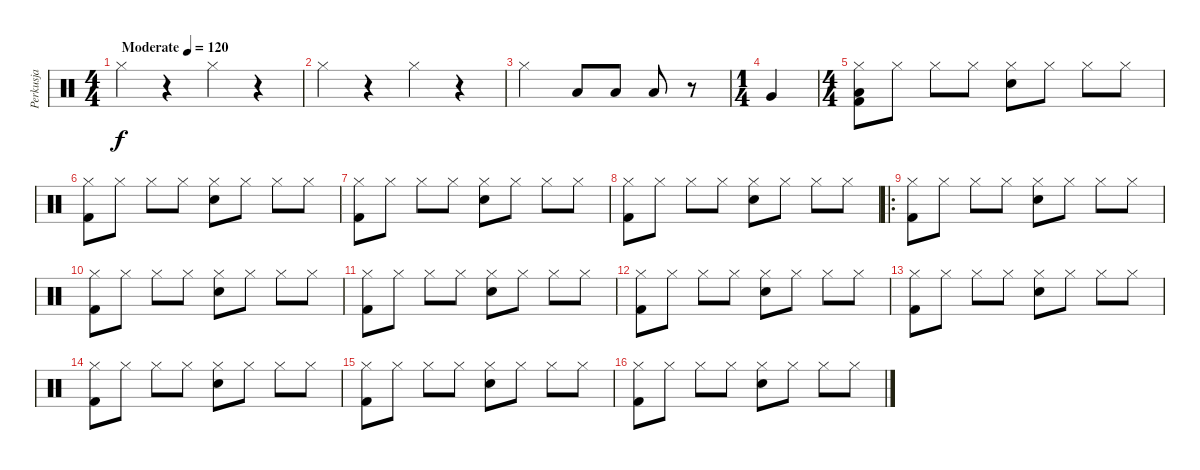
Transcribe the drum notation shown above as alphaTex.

\track ("Perkusja" "Perkusja") {instrument percussion}
\staff {score}
\articulation defaults
\ts (4 4)
\tempo (120 "Moderate")
\clef neutral
\ks c "Hi-Hat (closed)".4{dy f}
r.4 "Hi-Hat (closed)".4 r.4 |
"Hi-Hat (closed)".4 r.4 "Hi-Hat (closed)".4 r.4 |
"Hi-Hat (closed)".2 "Low Tom (hit)".8 "Low Tom (hit)".8 "Low Tom (hit)".8 r.8 |
\ts (1 4)
"Very Low Tom (hit)".4 |
\ts (4 4)
("Hi-Hat (closed)" "Low Floor Tom (hit)" "Kick (hit) 2").8 "Hi-Hat (closed)".8 "Hi-Hat (closed)".8 "Hi-Hat (closed)".8 ("Hi-Hat (closed)" "Electric Snare (hit)").8 "Hi-Hat (closed)".8 "Hi-Hat (closed)".8 "Hi-Hat (closed)".8 |
("Hi-Hat (closed)" "Kick (hit) 2").8 "Hi-Hat (closed)".8 "Hi-Hat (closed)".8 "Hi-Hat (closed)".8 ("Hi-Hat (closed)" "Electric Snare (hit)").8 "Hi-Hat (closed)".8 "Hi-Hat (closed)".8 "Hi-Hat (closed)".8 |
("Hi-Hat (closed)" "Kick (hit) 2").8 "Hi-Hat (closed)".8 "Hi-Hat (closed)".8 "Hi-Hat (closed)".8 ("Hi-Hat (closed)" "Electric Snare (hit)").8 "Hi-Hat (closed)".8 "Hi-Hat (closed)".8 "Hi-Hat (closed)".8 |
("Hi-Hat (closed)" "Kick (hit) 2").8 "Hi-Hat (closed)".8 "Hi-Hat (closed)".8 "Hi-Hat (closed)".8 ("Hi-Hat (closed)" "Electric Snare (hit)").8 "Hi-Hat (closed)".8 "Hi-Hat (closed)".8 "Hi-Hat (closed)".8 |
\ro
("Hi-Hat (closed)" "Kick (hit) 2").8 "Hi-Hat (closed)".8 "Hi-Hat (closed)".8 "Hi-Hat (closed)".8 ("Hi-Hat (closed)" "Electric Snare (hit)").8 "Hi-Hat (closed)".8 "Hi-Hat (closed)".8 "Hi-Hat (closed)".8 |
("Hi-Hat (closed)" "Kick (hit) 2").8 "Hi-Hat (closed)".8 "Hi-Hat (closed)".8 "Hi-Hat (closed)".8 ("Hi-Hat (closed)" "Electric Snare (hit)").8 "Hi-Hat (closed)".8 "Hi-Hat (closed)".8 "Hi-Hat (closed)".8 |
("Hi-Hat (closed)" "Kick (hit) 2").8 "Hi-Hat (closed)".8 "Hi-Hat (closed)".8 "Hi-Hat (closed)".8 ("Hi-Hat (closed)" "Electric Snare (hit)").8 "Hi-Hat (closed)".8 "Hi-Hat (closed)".8 "Hi-Hat (closed)".8 |
("Hi-Hat (closed)" "Kick (hit) 2").8 "Hi-Hat (closed)".8 "Hi-Hat (closed)".8 "Hi-Hat (closed)".8 ("Hi-Hat (closed)" "Electric Snare (hit)").8 "Hi-Hat (closed)".8 "Hi-Hat (closed)".8 "Hi-Hat (closed)".8 |
("Hi-Hat (closed)" "Kick (hit) 2").8 "Hi-Hat (closed)".8 "Hi-Hat (closed)".8 "Hi-Hat (closed)".8 ("Hi-Hat (closed)" "Electric Snare (hit)").8 "Hi-Hat (closed)".8 "Hi-Hat (closed)".8 "Hi-Hat (closed)".8 |
("Hi-Hat (closed)" "Kick (hit) 2").8 "Hi-Hat (closed)".8 "Hi-Hat (closed)".8 "Hi-Hat (closed)".8 ("Hi-Hat (closed)" "Electric Snare (hit)").8 "Hi-Hat (closed)".8 "Hi-Hat (closed)".8 "Hi-Hat (closed)".8 |
("Hi-Hat (closed)" "Kick (hit) 2").8 "Hi-Hat (closed)".8 "Hi-Hat (closed)".8 "Hi-Hat (closed)".8 ("Hi-Hat (closed)" "Electric Snare (hit)").8 "Hi-Hat (closed)".8 "Hi-Hat (closed)".8 "Hi-Hat (closed)".8 |
("Hi-Hat (closed)" "Kick (hit) 2").8 "Hi-Hat (closed)".8 "Hi-Hat (closed)".8 "Hi-Hat (closed)".8 ("Hi-Hat (closed)" "Electric Snare (hit)").8 "Hi-Hat (closed)".8 "Hi-Hat (closed)".8 "Hi-Hat (closed)".8
